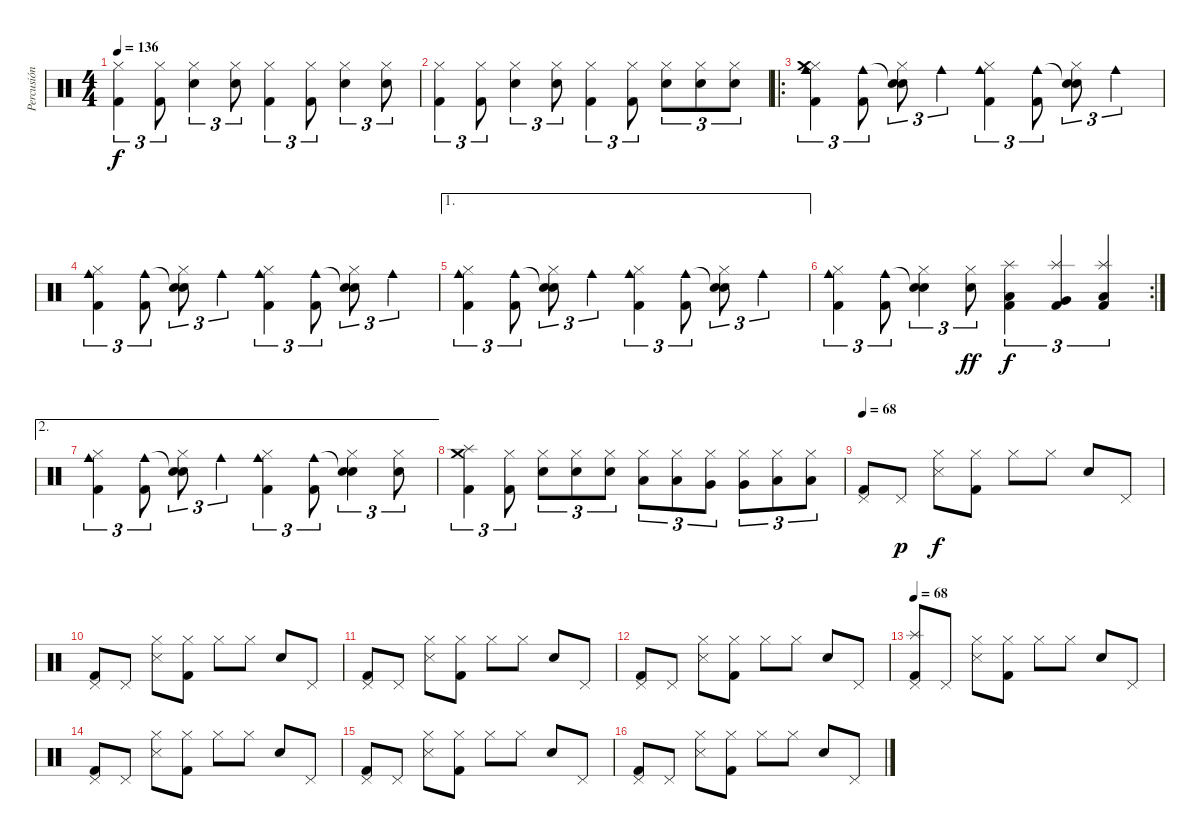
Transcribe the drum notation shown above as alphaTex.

\track ("Percusión" "Percusión") {instrument percussion}
\staff {score}
\articulation defaults
\ts (4 4)
\tempo 136
\clef neutral
\ks c
("Kick (hit) 2" "Hi-Hat (closed)").4{tu (3 2) dy f} ("Kick (hit) 2" "Hi-Hat (closed)").8{tu (3 2)} ("Snare (hit) 2" "Hi-Hat (closed)").4{tu (3 2)} ("Snare (hit) 2" "Hi-Hat (closed)").8{tu (3 2)} ("Kick (hit) 2" "Hi-Hat (closed)").4{tu (3 2)} ("Kick (hit) 2" "Hi-Hat (closed)").8{tu (3 2)} ("Snare (hit) 2" "Hi-Hat (closed)").4{tu (3 2)} ("Snare (hit) 2" "Hi-Hat (closed)").8{tu (3 2)} |
("Kick (hit) 2" "Hi-Hat (closed)").4{tu (3 2)} ("Kick (hit) 2" "Hi-Hat (closed)").8{tu (3 2)} ("Snare (hit) 2" "Hi-Hat (closed)").4{tu (3 2)} ("Snare (hit) 2" "Hi-Hat (closed)").8{tu (3 2)} ("Kick (hit) 2" "Hi-Hat (closed)").4{tu (3 2)} ("Kick (hit) 2" "Hi-Hat (closed)").8{tu (3 2)} ("Snare (hit) 2" "Hi-Hat (closed)").8{tu (3 2)} ("Snare (hit) 2" "Hi-Hat (closed)").8{tu (3 2)} ("Snare (hit) 2" "Hi-Hat (closed)").8{tu (3 2)} |
\ro
("Kick (hit) 2" "Cowbell medium (hit)" "Hi-Hat (closed)" "Crash medium (hit)").4{tu (3 2)} ("Kick (hit) 2" "Cowbell medium (hit)").8{tu (3 2)} ("Snare (hit) 2" "Snare (hit)"{t} "Hi-Hat (closed)").8{tu (3 2)} "Cowbell medium (hit)".4{tu (3 2)} ("Kick (hit) 2" "Cowbell medium (hit)" "Hi-Hat (closed)").4{tu (3 2)} ("Kick (hit) 2" "Cowbell medium (hit)").8{tu (3 2)} ("Snare (hit) 2" "Snare (hit)"{t} "Hi-Hat (closed)").8{tu (3 2)} "Cowbell medium (hit)".4{tu (3 2)} |
("Kick (hit) 2" "Cowbell medium (hit)" "Hi-Hat (closed)").4{tu (3 2)} ("Kick (hit) 2" "Cowbell medium (hit)").8{tu (3 2)} ("Snare (hit) 2" "Snare (hit)"{t} "Hi-Hat (closed)").8{tu (3 2)} "Cowbell medium (hit)".4{tu (3 2)} ("Kick (hit) 2" "Cowbell medium (hit)" "Hi-Hat (closed)").4{tu (3 2)} ("Kick (hit) 2" "Cowbell medium (hit)").8{tu (3 2)} ("Snare (hit) 2" "Snare (hit)"{t} "Hi-Hat (closed)").8{tu (3 2)} "Cowbell medium (hit)".4{tu (3 2)} |
\ae 1
("Kick (hit) 2" "Cowbell medium (hit)" "Hi-Hat (closed)").4{tu (3 2)} ("Kick (hit) 2" "Cowbell medium (hit)").8{tu (3 2)} ("Snare (hit) 2" "Snare (hit)"{t} "Hi-Hat (closed)").8{tu (3 2)} "Cowbell medium (hit)".4{tu (3 2)} ("Kick (hit) 2" "Cowbell medium (hit)" "Hi-Hat (closed)").4{tu (3 2)} ("Kick (hit) 2" "Cowbell medium (hit)").8{tu (3 2)} ("Snare (hit) 2" "Snare (hit)"{t} "Hi-Hat (closed)").8{tu (3 2)} "Cowbell medium (hit)".4{tu (3 2)} |
\rc 2
("Kick (hit) 2" "Cowbell medium (hit)" "Hi-Hat (closed)").4{tu (3 2)} ("Kick (hit) 2" "Cowbell medium (hit)").8{tu (3 2)} ("Snare (hit) 2" "Snare (hit)"{t} "Hi-Hat (closed)").4{tu (3 2)} ("Snare (hit) 2" "Hi-Hat (closed)").8{tu (3 2) dy ff} ("Kick (hit) 2" "Low Tom (hit)" "Splash (hit)").4{tu (3 2) dy f} ("Kick (hit) 2" "Very Low Tom (hit)" "Splash (hit)").4{tu (3 2)} ("Kick (hit) 2" "Low Floor Tom (hit)" "Splash (hit)").4{tu (3 2)} |
\ae 2
("Kick (hit) 2" "Cowbell medium (hit)" "Hi-Hat (closed)").4{tu (3 2)} ("Kick (hit) 2" "Cowbell medium (hit)").8{tu (3 2)} ("Snare (hit) 2" "Snare (hit)"{t} "Hi-Hat (closed)").8{tu (3 2)} "Cowbell medium (hit)".4{tu (3 2)} ("Kick (hit) 2" "Cowbell medium (hit)" "Hi-Hat (closed)").4{tu (3 2)} ("Kick (hit) 2" "Cowbell medium (hit)").8{tu (3 2)} ("Snare (hit) 2" "Snare (hit)"{t} "Hi-Hat (closed)").4{tu (3 2)} ("Snare (hit) 2" "Hi-Hat (closed)").8{tu (3 2)} |
("Kick (hit) 2" "Splash (hit)" "Crash medium (hit)").4{tu (3 2)} ("Kick (hit) 2" "Hi-Hat (closed)").8{tu (3 2)} ("Snare (hit) 2" "Hi-Hat (closed)").8{tu (3 2)} ("Snare (hit) 2" "Hi-Hat (closed)").8{tu (3 2)} ("Snare (hit) 2" "Hi-Hat (closed)").8{tu (3 2)} ("Low Tom (hit)" "Hi-Hat (closed)").8{tu (3 2)} ("Low Tom (hit)" "Hi-Hat (closed)").8{tu (3 2)} ("Very Low Tom (hit)" "Hi-Hat (closed)").8{tu (3 2)} ("Very Low Tom (hit)" "Hi-Hat (closed)").8{tu (3 2)} ("Low Floor Tom (hit)" "Hi-Hat (closed)").8{tu (3 2)} ("Low Floor Tom (hit)" "Hi-Hat (closed)").8{tu (3 2)} |
\tempo 68
("Kick (hit) 2" "Pedal Hi-Hat (hit)").8 "Pedal Hi-Hat (hit)".8{dy p} ("Snare (side stick) 3" "Hi-Hat (closed)").8{dy f} ("Kick (hit) 2" "Hi-Hat (closed)").8 "Hi-Hat (closed)".8 "Hi-Hat (closed)".8 "Snare (hit) 2".8 "Pedal Hi-Hat (hit)".8 |
("Kick (hit) 2" "Pedal Hi-Hat (hit)").8 "Pedal Hi-Hat (hit)".8 ("Snare (side stick) 3" "Hi-Hat (closed)").8 ("Kick (hit) 2" "Hi-Hat (closed)").8 "Hi-Hat (closed)".8 "Hi-Hat (closed)".8 "Snare (hit) 2".8 "Pedal Hi-Hat (hit)".8 |
("Kick (hit) 2" "Pedal Hi-Hat (hit)").8 "Pedal Hi-Hat (hit)".8 ("Snare (side stick) 3" "Hi-Hat (closed)").8 ("Kick (hit) 2" "Hi-Hat (closed)").8 "Hi-Hat (closed)".8 "Hi-Hat (closed)".8 "Snare (hit) 2".8 "Pedal Hi-Hat (hit)".8 |
("Kick (hit) 2" "Pedal Hi-Hat (hit)").8 "Pedal Hi-Hat (hit)".8 ("Snare (side stick) 3" "Hi-Hat (closed)").8 ("Kick (hit) 2" "Hi-Hat (closed)").8 "Hi-Hat (closed)".8 "Hi-Hat (closed)".8 "Snare (hit) 2".8 "Pedal Hi-Hat (hit)".8 |
\tempo 68
("Kick (hit) 2" "Pedal Hi-Hat (hit)" "Splash (hit)").8 "Pedal Hi-Hat (hit)".8 ("Snare (side stick) 3" "Hi-Hat (closed)").8 ("Kick (hit) 2" "Hi-Hat (closed)").8 "Hi-Hat (closed)".8 "Hi-Hat (closed)".8 "Snare (hit) 2".8 "Pedal Hi-Hat (hit)".8 |
("Kick (hit) 2" "Pedal Hi-Hat (hit)").8 "Pedal Hi-Hat (hit)".8 ("Snare (side stick) 3" "Hi-Hat (closed)").8 ("Kick (hit) 2" "Hi-Hat (closed)").8 "Hi-Hat (closed)".8 "Hi-Hat (closed)".8 "Snare (hit) 2".8 "Pedal Hi-Hat (hit)".8 |
("Kick (hit) 2" "Pedal Hi-Hat (hit)").8 "Pedal Hi-Hat (hit)".8 ("Snare (side stick) 3" "Hi-Hat (closed)").8 ("Kick (hit) 2" "Hi-Hat (closed)").8 "Hi-Hat (closed)".8 "Hi-Hat (closed)".8 "Snare (hit) 2".8 "Pedal Hi-Hat (hit)".8 |
("Kick (hit) 2" "Pedal Hi-Hat (hit)").8 "Pedal Hi-Hat (hit)".8 ("Snare (side stick) 3" "Hi-Hat (closed)").8 ("Kick (hit) 2" "Hi-Hat (closed)").8 "Hi-Hat (closed)".8 "Hi-Hat (closed)".8 "Snare (hit) 2".8 "Pedal Hi-Hat (hit)".8
